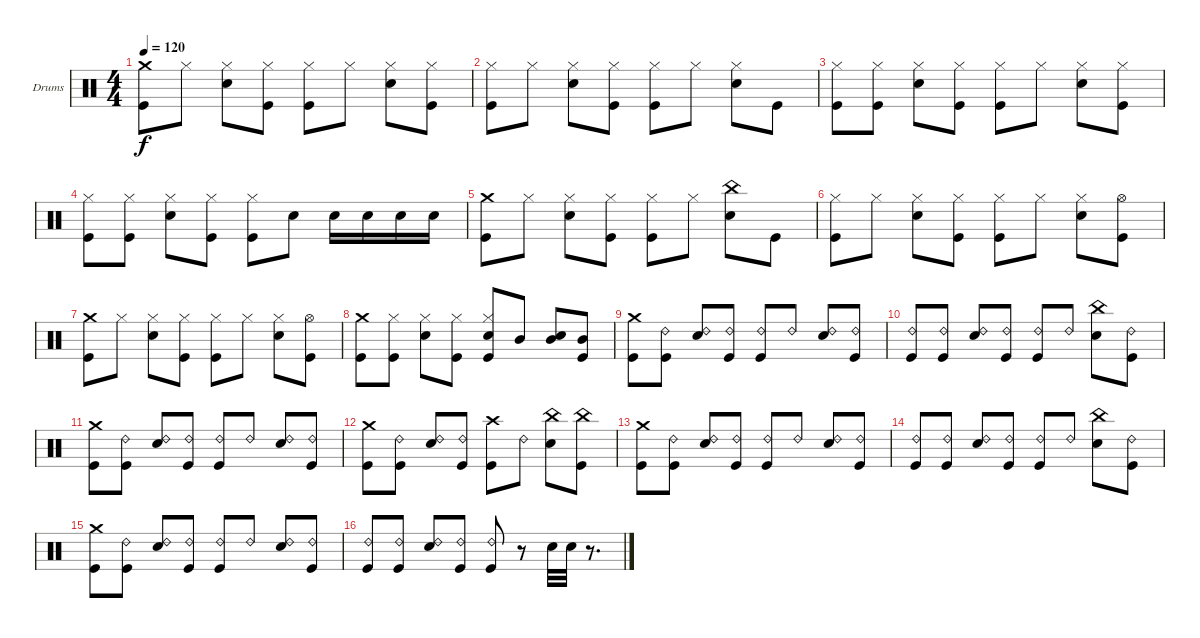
\defaultSystemsLayout 4
\bracketExtendMode groupsimilarinstruments
\firstSystemTrackNameOrientation horizontal
\otherSystemsTrackNameOrientation horizontal
\track ("Stefan Schwarzmann" "Drums") {instrument percussion}
\staff {score}
\articulation defaults
\ts (4 4)
\tempo 120
\clef neutral
\ks c
("Crash medium (hit)" "Kick (hit)").8{dy f} "Hi-Hat (closed)".8 ("Hi-Hat (closed)" "Snare (hit) 2").8 ("Hi-Hat (closed)" "Kick (hit)").8 ("Hi-Hat (closed)" "Kick (hit)").8 "Hi-Hat (closed)".8 ("Hi-Hat (closed)" "Snare (hit) 2").8 ("Hi-Hat (closed)" "Kick (hit)").8 |
("Hi-Hat (closed)" "Kick (hit)").8 "Hi-Hat (closed)".8 ("Hi-Hat (closed)" "Snare (hit) 2").8 ("Hi-Hat (closed)" "Kick (hit)").8 ("Hi-Hat (closed)" "Kick (hit)").8 "Hi-Hat (closed)".8 ("Hi-Hat (closed)" "Snare (hit) 2").8 "Kick (hit)".8 |
("Hi-Hat (closed)" "Kick (hit)").8 ("Hi-Hat (closed)" "Kick (hit)").8 ("Hi-Hat (closed)" "Snare (hit) 2").8 ("Hi-Hat (closed)" "Kick (hit)").8 ("Hi-Hat (closed)" "Kick (hit)").8 "Hi-Hat (closed)".8 ("Hi-Hat (closed)" "Snare (hit) 2").8 ("Hi-Hat (closed)" "Kick (hit)").8 |
("Hi-Hat (closed)" "Kick (hit)").8 ("Hi-Hat (closed)" "Kick (hit)").8 ("Hi-Hat (closed)" "Snare (hit) 2").8 ("Hi-Hat (closed)" "Kick (hit)").8 ("Hi-Hat (closed)" "Kick (hit)").8 "Snare (hit) 2".8 "Snare (hit) 2".16 "Snare (hit) 2".16 "Snare (hit) 2".16 "Snare (hit) 2".16 |
("Crash medium (hit)" "Kick (hit)").8 "Hi-Hat (closed)".8 ("Hi-Hat (closed)" "Snare (hit) 2").8 ("Hi-Hat (closed)" "Kick (hit)").8 ("Hi-Hat (closed)" "Kick (hit)").8 "Hi-Hat (closed)".8 ("China (hit)" "Snare (hit) 2").8 "Kick (hit)".8 |
("Hi-Hat (closed)" "Kick (hit)").8 "Hi-Hat (closed)".8 ("Hi-Hat (closed)" "Snare (hit) 2").8 ("Hi-Hat (closed)" "Kick (hit)").8 ("Hi-Hat (closed)" "Kick (hit)").8 "Hi-Hat (closed)".8 ("Hi-Hat (closed)" "Snare (hit) 2").8 ("Hi-Hat (open)" "Kick (hit)").8 |
("Crash medium (hit)" "Kick (hit)").8 "Hi-Hat (closed)".8 ("Hi-Hat (closed)" "Snare (hit) 2").8 ("Hi-Hat (closed)" "Kick (hit)").8 ("Hi-Hat (closed)" "Kick (hit)").8 "Hi-Hat (closed)".8 ("Hi-Hat (closed)" "Snare (hit) 2").8 ("Hi-Hat (open)" "Kick (hit)").8 |
("Crash medium (hit)" "Kick (hit)").8 ("Hi-Hat (closed)" "Kick (hit)").8 ("Hi-Hat (closed)" "Snare (hit) 2").8 ("Hi-Hat (closed)" "Kick (hit)").8 ("Hi-Hat (closed)" "Snare (hit) 2" "Kick (hit)").8 "Mid Tom (hit)".8 ("Mid Tom (hit)" "Snare (hit) 2").8 ("Mid Tom (hit)" "Kick (hit)").8 |
("Crash medium (hit)" "Kick (hit)").8 ("Ride (bell) 2" "Kick (hit)").8 ("Ride (bell) 2" "Snare (hit) 2").8 ("Ride (bell) 2" "Kick (hit)").8 ("Ride (bell) 2" "Kick (hit)").8 "Ride (bell) 2".8 ("Ride (bell) 2" "Snare (hit) 2").8 ("Ride (bell) 2" "Kick (hit)").8 |
("Ride (bell) 2" "Kick (hit)").8 ("Ride (bell) 2" "Kick (hit)").8 ("Ride (bell) 2" "Snare (hit) 2").8 ("Ride (bell) 2" "Kick (hit)").8 ("Ride (bell) 2" "Kick (hit)").8 "Ride (bell) 2".8 ("China (hit)" "Snare (hit) 2").8 ("Ride (bell) 2" "Kick (hit)").8 |
("Crash medium (hit)" "Kick (hit)").8 ("Ride (bell) 2" "Kick (hit)").8 ("Ride (bell) 2" "Snare (hit) 2").8 ("Ride (bell) 2" "Kick (hit)").8 ("Ride (bell) 2" "Kick (hit)").8 "Ride (bell) 2".8 ("Ride (bell) 2" "Snare (hit) 2").8 ("Ride (bell) 2" "Kick (hit)").8 |
("Kick (hit)" "Crash medium (hit)").8 ("Ride (bell) 2" "Kick (hit)").8 ("Ride (bell) 2" "Snare (hit) 2").8 ("Ride (bell) 2" "Kick (hit)").8 ("Kick (hit)" "Crash high (hit)").8 "Ride (bell) 2".8 ("China (hit)" "Snare (hit) 2").8 ("China (hit)" "Kick (hit)").8 |
("Crash medium (hit)" "Kick (hit)").8 ("Ride (bell) 2" "Kick (hit)").8 ("Ride (bell) 2" "Snare (hit) 2").8 ("Ride (bell) 2" "Kick (hit)").8 ("Ride (bell) 2" "Kick (hit)").8 "Ride (bell) 2".8 ("Ride (bell) 2" "Snare (hit) 2").8 ("Ride (bell) 2" "Kick (hit)").8 |
("Ride (bell) 2" "Kick (hit)").8 ("Ride (bell) 2" "Kick (hit)").8 ("Ride (bell) 2" "Snare (hit) 2").8 ("Ride (bell) 2" "Kick (hit)").8 ("Ride (bell) 2" "Kick (hit)").8 "Ride (bell) 2".8 ("China (hit)" "Snare (hit) 2").8 ("Ride (bell) 2" "Kick (hit)").8 |
("Crash medium (hit)" "Kick (hit)").8 ("Ride (bell) 2" "Kick (hit)").8 ("Ride (bell) 2" "Snare (hit) 2").8 ("Ride (bell) 2" "Kick (hit)").8 ("Ride (bell) 2" "Kick (hit)").8 "Ride (bell) 2".8 ("Ride (bell) 2" "Snare (hit) 2").8 ("Ride (bell) 2" "Kick (hit)").8 |
("Ride (bell) 2" "Kick (hit)").8 ("Ride (bell) 2" "Kick (hit)").8 ("Ride (bell) 2" "Snare (hit) 2").8 ("Ride (bell) 2" "Kick (hit)").8 ("Kick (hit)" "Ride (bell) 2").8 r.8 "Snare (hit) 2".32 "Snare (hit) 2".32 r.8{d}
